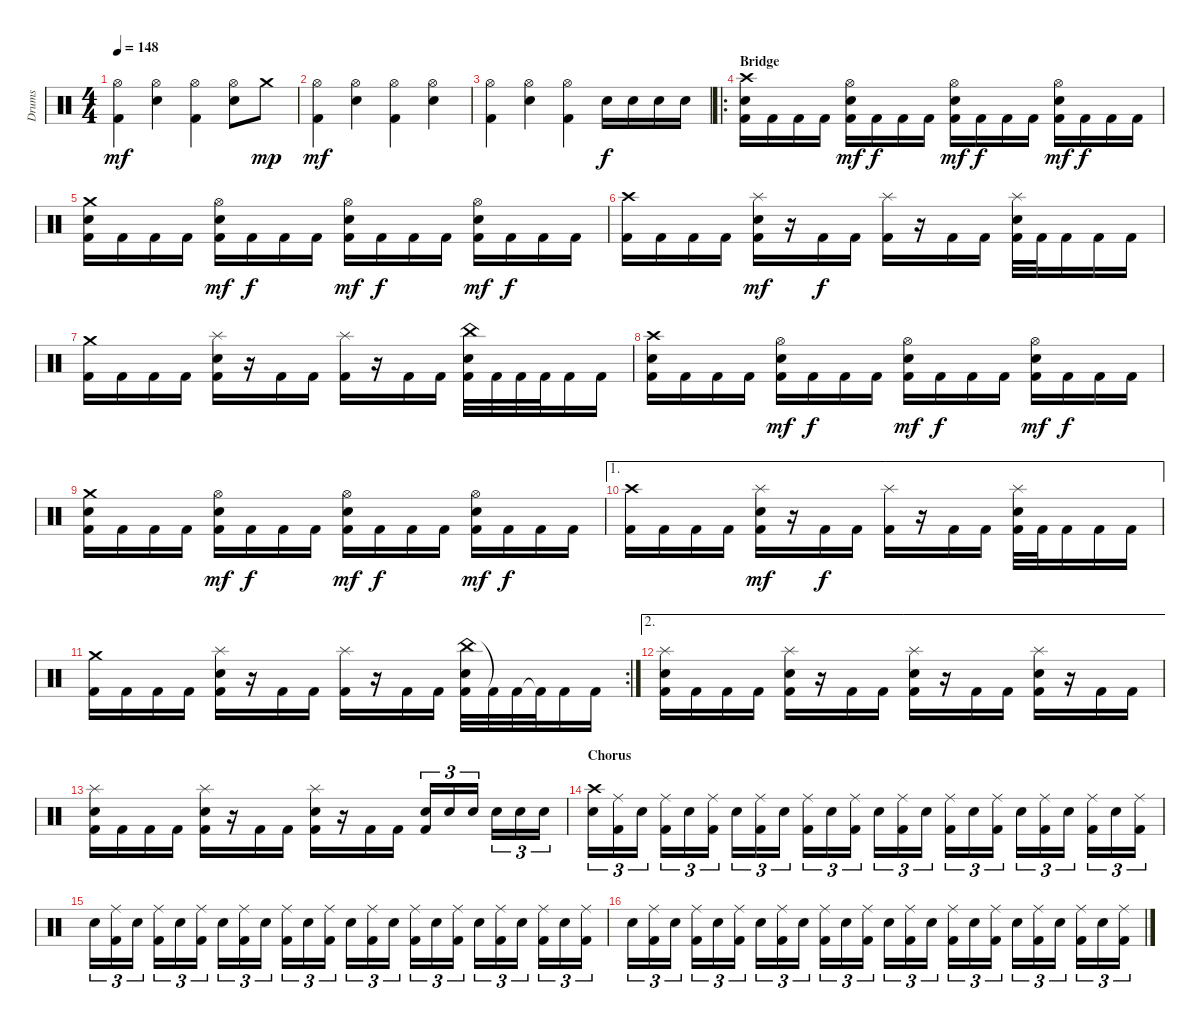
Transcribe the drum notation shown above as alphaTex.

\track ("Drums" "Drums") {instrument percussion}
\staff {score}
\articulation defaults
\ts (4 4)
\tempo 148
\clef neutral
\ks c
("Hi-Hat (open)" "Kick (hit) 2").4{dy mf} ("Hi-Hat (open)" "Snare (hit) 2").4 ("Hi-Hat (open)" "Kick (hit) 2").4 ("Hi-Hat (open)" "Snare (hit) 2").8 "Crash medium (hit)".8{dy mp} |
("Hi-Hat (open)" "Kick (hit) 2").4{dy mf} ("Hi-Hat (open)" "Snare (hit) 2").4 ("Hi-Hat (open)" "Kick (hit) 2").4 ("Hi-Hat (open)" "Snare (hit) 2").4 |
("Hi-Hat (open)" "Kick (hit) 2").4 ("Hi-Hat (open)" "Snare (hit) 2").4 ("Hi-Hat (open)" "Kick (hit) 2").4 "Snare (hit) 2".16{dy f} "Snare (hit) 2".16 "Snare (hit) 2".16 "Snare (hit) 2".16 |
\ro
\section ("" "Bridge")
("Crash high (hit)" "Snare (hit) 2" "Kick (hit) 2").16 "Kick (hit) 2".16 "Kick (hit) 2".16 "Kick (hit) 2".16 ("Hi-Hat (open)" "Snare (hit) 2" "Kick (hit) 2").16{dy mf} "Kick (hit) 2".16{dy f} "Kick (hit) 2".16 "Kick (hit) 2".16 ("Hi-Hat (open)" "Snare (hit) 2" "Kick (hit) 2").16{dy mf} "Kick (hit) 2".16{dy f} "Kick (hit) 2".16 "Kick (hit) 2".16 ("Hi-Hat (open)" "Snare (hit) 2" "Kick (hit) 2").16{dy mf} "Kick (hit) 2".16{dy f} "Kick (hit) 2".16 "Kick (hit) 2".16 |
("Crash medium (hit)" "Snare (hit) 2" "Kick (hit) 2").16 "Kick (hit) 2".16 "Kick (hit) 2".16 "Kick (hit) 2".16 ("Hi-Hat (open)" "Snare (hit) 2" "Kick (hit) 2").16{dy mf} "Kick (hit) 2".16{dy f} "Kick (hit) 2".16 "Kick (hit) 2".16 ("Hi-Hat (open)" "Snare (hit) 2" "Kick (hit) 2").16{dy mf} "Kick (hit) 2".16{dy f} "Kick (hit) 2".16 "Kick (hit) 2".16 ("Hi-Hat (open)" "Snare (hit) 2" "Kick (hit) 2").16{dy mf} "Kick (hit) 2".16{dy f} "Kick (hit) 2".16 "Kick (hit) 2".16 |
("Crash high (hit)" "Kick (hit) 2").16 "Kick (hit) 2".16 "Kick (hit) 2".16 "Kick (hit) 2".16 ("Splash (hit)" "Snare (hit) 2" "Kick (hit) 2").16{dy mf} r.16 "Kick (hit) 2".16{dy f} "Kick (hit) 2".16 ("Splash (hit)" "Kick (hit) 2").16 r.16 "Kick (hit) 2".16 "Kick (hit) 2".16 ("Splash (hit)" "Snare (hit) 2" "Kick (hit) 2").32 "Kick (hit) 2".32 "Kick (hit) 2".16 "Kick (hit) 2".16 "Kick (hit) 2".16 |
("Crash medium (hit)" "Kick (hit) 2").16 "Kick (hit) 2".16 "Kick (hit) 2".16 "Kick (hit) 2".16 ("Splash (hit)" "Snare (hit) 2" "Kick (hit) 2").16 r.16 "Kick (hit) 2".16 "Kick (hit) 2".16 ("Splash (hit)" "Kick (hit) 2").16 r.16 "Kick (hit) 2".16 "Kick (hit) 2".16 ("China (hit)" "Snare (hit) 2" "Kick (hit) 2").32 "Kick (hit) 2".32 "Kick (hit) 2".32 "Kick (hit) 2".32 "Kick (hit) 2".16 "Kick (hit) 2".16 |
("Crash high (hit)" "Snare (hit) 2" "Kick (hit) 2").16 "Kick (hit) 2".16 "Kick (hit) 2".16 "Kick (hit) 2".16 ("Hi-Hat (open)" "Snare (hit) 2" "Kick (hit) 2").16{dy mf} "Kick (hit) 2".16{dy f} "Kick (hit) 2".16 "Kick (hit) 2".16 ("Hi-Hat (open)" "Snare (hit) 2" "Kick (hit) 2").16{dy mf} "Kick (hit) 2".16{dy f} "Kick (hit) 2".16 "Kick (hit) 2".16 ("Hi-Hat (open)" "Snare (hit) 2" "Kick (hit) 2").16{dy mf} "Kick (hit) 2".16{dy f} "Kick (hit) 2".16 "Kick (hit) 2".16 |
("Crash medium (hit)" "Snare (hit) 2" "Kick (hit) 2").16 "Kick (hit) 2".16 "Kick (hit) 2".16 "Kick (hit) 2".16 ("Hi-Hat (open)" "Snare (hit) 2" "Kick (hit) 2").16{dy mf} "Kick (hit) 2".16{dy f} "Kick (hit) 2".16 "Kick (hit) 2".16 ("Hi-Hat (open)" "Snare (hit) 2" "Kick (hit) 2").16{dy mf} "Kick (hit) 2".16{dy f} "Kick (hit) 2".16 "Kick (hit) 2".16 ("Hi-Hat (open)" "Snare (hit) 2" "Kick (hit) 2").16{dy mf} "Kick (hit) 2".16{dy f} "Kick (hit) 2".16 "Kick (hit) 2".16 |
\ae 1
("Crash high (hit)" "Kick (hit) 2").16 "Kick (hit) 2".16 "Kick (hit) 2".16 "Kick (hit) 2".16 ("Splash (hit)" "Snare (hit) 2" "Kick (hit) 2").16{dy mf} r.16 "Kick (hit) 2".16{dy f} "Kick (hit) 2".16 ("Splash (hit)" "Kick (hit) 2").16 r.16 "Kick (hit) 2".16 "Kick (hit) 2".16 ("Splash (hit)" "Snare (hit) 2" "Kick (hit) 2").32 "Kick (hit) 2".32 "Kick (hit) 2".16 "Kick (hit) 2".16 "Kick (hit) 2".16 |
\rc 2
("Crash medium (hit)" "Kick (hit) 2").16 "Kick (hit) 2".16 "Kick (hit) 2".16 "Kick (hit) 2".16 ("Splash (hit)" "Snare (hit) 2" "Kick (hit) 2").16 r.16 "Kick (hit) 2".16 "Kick (hit) 2".16 ("Splash (hit)" "Kick (hit) 2").16 r.16 "Kick (hit) 2".16 "Kick (hit) 2".16 ("China (hit)" "Snare (hit) 2" "Kick (hit) 2").32 "Kick (hit) 2"{t}.32 "Kick (hit) 2".32 "Kick (hit) 2"{t}.32 "Kick (hit) 2".16 "Kick (hit) 2".16 |
\ae 2
("Splash (hit)" "Snare (hit) 2" "Kick (hit) 2").16 "Kick (hit) 2".16 "Kick (hit) 2".16 "Kick (hit) 2".16 ("Splash (hit)" "Snare (hit) 2" "Kick (hit) 2").16 r.16 "Kick (hit) 2".16 "Kick (hit) 2".16 ("Splash (hit)" "Snare (hit) 2" "Kick (hit) 2").16 r.16 "Kick (hit) 2".16 "Kick (hit) 2".16 ("Splash (hit)" "Snare (hit) 2" "Kick (hit) 2").16 r.16 "Kick (hit) 2".16 "Kick (hit) 2".16 |
("Splash (hit)" "Snare (hit) 2" "Kick (hit) 2").16 "Kick (hit) 2".16 "Kick (hit) 2".16 "Kick (hit) 2".16 ("Splash (hit)" "Snare (hit) 2" "Kick (hit) 2").16 r.16 "Kick (hit) 2".16 "Kick (hit) 2".16 ("Splash (hit)" "Snare (hit) 2" "Kick (hit) 2").16 r.16 "Kick (hit) 2".16 "Kick (hit) 2".16 ("Snare (hit) 2" "Kick (hit) 2").16{tu (3 2)} "Snare (hit) 2".16{tu (3 2)} "Snare (hit) 2".16{tu (3 2)} "Snare (hit) 2".16{tu (3 2)} "Snare (hit) 2".16{tu (3 2)} "Snare (hit) 2".16{tu (3 2)} |
\section ("" "Chorus")
("Crash high (hit)" "Snare (hit) 2").16{tu (3 2)} ("Ride (middle)" "Kick (hit) 2").16{tu (3 2)} "Snare (hit) 2".16{tu (3 2)} ("Ride (middle)" "Kick (hit) 2").16{tu (3 2)} "Snare (hit) 2".16{tu (3 2)} ("Ride (middle)" "Kick (hit) 2").16{tu (3 2)} "Snare (hit) 2".16{tu (3 2)} ("Ride (middle)" "Kick (hit) 2").16{tu (3 2)} "Snare (hit) 2".16{tu (3 2)} ("Ride (middle)" "Kick (hit) 2").16{tu (3 2)} "Snare (hit) 2".16{tu (3 2)} ("Ride (middle)" "Kick (hit) 2").16{tu (3 2)} "Snare (hit) 2".16{tu (3 2)} ("Ride (middle)" "Kick (hit) 2").16{tu (3 2)} "Snare (hit) 2".16{tu (3 2)} ("Ride (middle)" "Kick (hit) 2").16{tu (3 2)} "Snare (hit) 2".16{tu (3 2)} ("Ride (middle)" "Kick (hit) 2").16{tu (3 2)} "Snare (hit) 2".16{tu (3 2)} ("Ride (middle)" "Kick (hit) 2").16{tu (3 2)} "Snare (hit) 2".16{tu (3 2)} ("Ride (middle)" "Kick (hit) 2").16{tu (3 2)} "Snare (hit) 2".16{tu (3 2)} ("Ride (middle)" "Kick (hit) 2").16{tu (3 2)} |
"Snare (hit) 2".16{tu (3 2)} ("Ride (middle)" "Kick (hit) 2").16{tu (3 2)} "Snare (hit) 2".16{tu (3 2)} ("Ride (middle)" "Kick (hit) 2").16{tu (3 2)} "Snare (hit) 2".16{tu (3 2)} ("Ride (middle)" "Kick (hit) 2").16{tu (3 2)} "Snare (hit) 2".16{tu (3 2)} ("Ride (middle)" "Kick (hit) 2").16{tu (3 2)} "Snare (hit) 2".16{tu (3 2)} ("Ride (middle)" "Kick (hit) 2").16{tu (3 2)} "Snare (hit) 2".16{tu (3 2)} ("Ride (middle)" "Kick (hit) 2").16{tu (3 2)} "Snare (hit) 2".16{tu (3 2)} ("Ride (middle)" "Kick (hit) 2").16{tu (3 2)} "Snare (hit) 2".16{tu (3 2)} ("Ride (middle)" "Kick (hit) 2").16{tu (3 2)} "Snare (hit) 2".16{tu (3 2)} ("Ride (middle)" "Kick (hit) 2").16{tu (3 2)} "Snare (hit) 2".16{tu (3 2)} ("Ride (middle)" "Kick (hit) 2").16{tu (3 2)} "Snare (hit) 2".16{tu (3 2)} ("Ride (middle)" "Kick (hit) 2").16{tu (3 2)} "Snare (hit) 2".16{tu (3 2)} ("Ride (middle)" "Kick (hit) 2").16{tu (3 2)} |
"Snare (hit) 2".16{tu (3 2)} ("Ride (middle)" "Kick (hit) 2").16{tu (3 2)} "Snare (hit) 2".16{tu (3 2)} ("Ride (middle)" "Kick (hit) 2").16{tu (3 2)} "Snare (hit) 2".16{tu (3 2)} ("Ride (middle)" "Kick (hit) 2").16{tu (3 2)} "Snare (hit) 2".16{tu (3 2)} ("Ride (middle)" "Kick (hit) 2").16{tu (3 2)} "Snare (hit) 2".16{tu (3 2)} ("Ride (middle)" "Kick (hit) 2").16{tu (3 2)} "Snare (hit) 2".16{tu (3 2)} ("Ride (middle)" "Kick (hit) 2").16{tu (3 2)} "Snare (hit) 2".16{tu (3 2)} ("Ride (middle)" "Kick (hit) 2").16{tu (3 2)} "Snare (hit) 2".16{tu (3 2)} ("Ride (middle)" "Kick (hit) 2").16{tu (3 2)} "Snare (hit) 2".16{tu (3 2)} ("Ride (middle)" "Kick (hit) 2").16{tu (3 2)} "Snare (hit) 2".16{tu (3 2)} ("Ride (middle)" "Kick (hit) 2").16{tu (3 2)} "Snare (hit) 2".16{tu (3 2)} ("Ride (middle)" "Kick (hit) 2").16{tu (3 2)} "Snare (hit) 2".16{tu (3 2)} ("Ride (middle)" "Kick (hit) 2").16{tu (3 2)}
